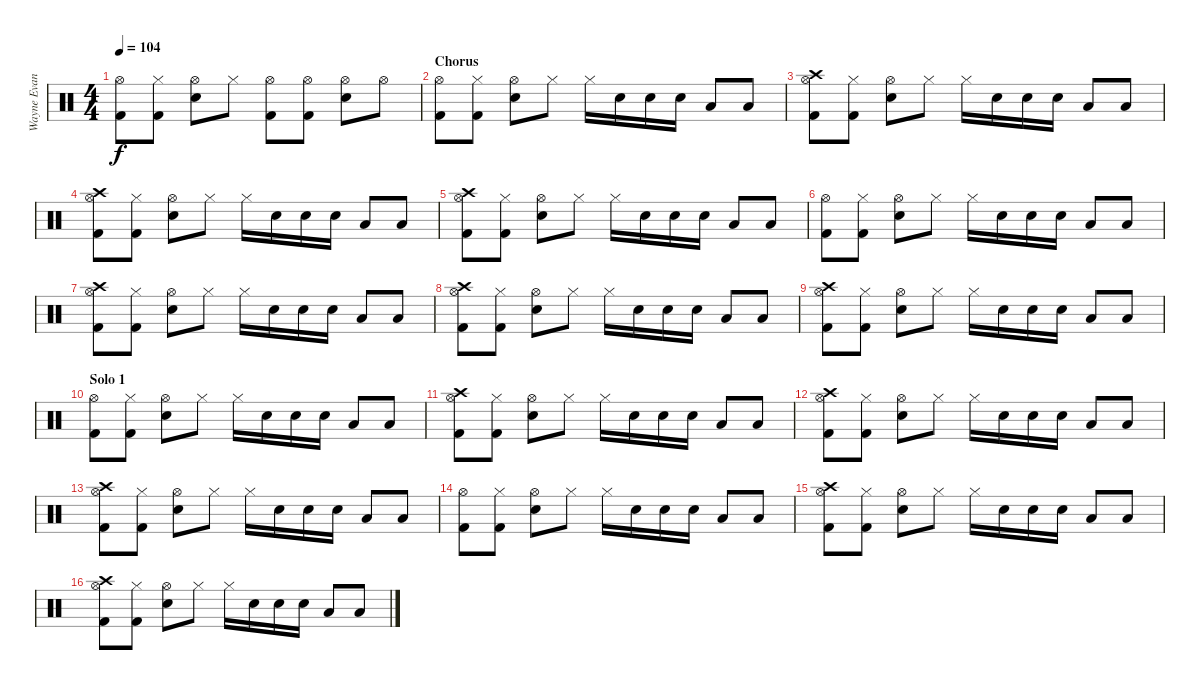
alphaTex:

\track ("Wayne Evans " "Wayne Evan") {instrument percussion}
\staff {score}
\articulation defaults
\ts (4 4)
\tempo 104
\clef neutral
\ks c
("Hi-Hat (open)" "Kick (hit) 2").8{dy f} ("Hi-Hat (closed)" "Kick (hit) 2").8 ("Hi-Hat (open)" "Electric Snare (hit)").8 "Hi-Hat (closed)".8 ("Hi-Hat (open)" "Kick (hit) 2").8 ("Hi-Hat (open)" "Kick (hit) 2").8 ("Hi-Hat (open)" "Electric Snare (hit)").8 "Hi-Hat (open)".8 |
\section ("" "Chorus")
("Hi-Hat (open)" "Kick (hit) 2").8 ("Hi-Hat (closed)" "Kick (hit) 2").8 ("Hi-Hat (open)" "Electric Snare (hit)").8 "Hi-Hat (closed)".8 "Hi-Hat (closed)".16 "Electric Snare (hit)".16 "Electric Snare (hit)".16 "Electric Snare (hit)".16 "Low Tom (hit)".8 "Low Tom (hit)".8 |
("Crash high (hit)" "Hi-Hat (open)" "Kick (hit) 2").8 ("Hi-Hat (closed)" "Kick (hit) 2").8 ("Hi-Hat (open)" "Electric Snare (hit)").8 "Hi-Hat (closed)".8 "Hi-Hat (closed)".16 "Electric Snare (hit)".16 "Electric Snare (hit)".16 "Electric Snare (hit)".16 "Low Tom (hit)".8 "Low Tom (hit)".8 |
("Crash high (hit)" "Hi-Hat (open)" "Kick (hit) 2").8 ("Hi-Hat (closed)" "Kick (hit) 2").8 ("Hi-Hat (open)" "Electric Snare (hit)").8 "Hi-Hat (closed)".8 "Hi-Hat (closed)".16 "Electric Snare (hit)".16 "Electric Snare (hit)".16 "Electric Snare (hit)".16 "Low Tom (hit)".8 "Low Tom (hit)".8 |
("Crash high (hit)" "Hi-Hat (open)" "Kick (hit) 2").8 ("Hi-Hat (closed)" "Kick (hit) 2").8 ("Hi-Hat (open)" "Electric Snare (hit)").8 "Hi-Hat (closed)".8 "Hi-Hat (closed)".16 "Electric Snare (hit)".16 "Electric Snare (hit)".16 "Electric Snare (hit)".16 "Low Tom (hit)".8 "Low Tom (hit)".8 |
("Hi-Hat (open)" "Kick (hit) 2").8 ("Hi-Hat (closed)" "Kick (hit) 2").8 ("Hi-Hat (open)" "Electric Snare (hit)").8 "Hi-Hat (closed)".8 "Hi-Hat (closed)".16 "Electric Snare (hit)".16 "Electric Snare (hit)".16 "Electric Snare (hit)".16 "Low Tom (hit)".8 "Low Tom (hit)".8 |
("Crash high (hit)" "Hi-Hat (open)" "Kick (hit) 2").8 ("Hi-Hat (closed)" "Kick (hit) 2").8 ("Hi-Hat (open)" "Electric Snare (hit)").8 "Hi-Hat (closed)".8 "Hi-Hat (closed)".16 "Electric Snare (hit)".16 "Electric Snare (hit)".16 "Electric Snare (hit)".16 "Low Tom (hit)".8 "Low Tom (hit)".8 |
("Crash high (hit)" "Hi-Hat (open)" "Kick (hit) 2").8 ("Hi-Hat (closed)" "Kick (hit) 2").8 ("Hi-Hat (open)" "Electric Snare (hit)").8 "Hi-Hat (closed)".8 "Hi-Hat (closed)".16 "Electric Snare (hit)".16 "Electric Snare (hit)".16 "Electric Snare (hit)".16 "Low Tom (hit)".8 "Low Tom (hit)".8 |
("Crash high (hit)" "Hi-Hat (open)" "Kick (hit) 2").8 ("Hi-Hat (closed)" "Kick (hit) 2").8 ("Hi-Hat (open)" "Electric Snare (hit)").8 "Hi-Hat (closed)".8 "Hi-Hat (closed)".16 "Electric Snare (hit)".16 "Electric Snare (hit)".16 "Electric Snare (hit)".16 "Low Tom (hit)".8 "Low Tom (hit)".8 |
\section ("" "Solo 1")
("Hi-Hat (open)" "Kick (hit) 2").8 ("Hi-Hat (closed)" "Kick (hit) 2").8 ("Hi-Hat (open)" "Electric Snare (hit)").8 "Hi-Hat (closed)".8 "Hi-Hat (closed)".16 "Electric Snare (hit)".16 "Electric Snare (hit)".16 "Electric Snare (hit)".16 "Low Tom (hit)".8 "Low Tom (hit)".8 |
("Crash high (hit)" "Hi-Hat (open)" "Kick (hit) 2").8 ("Hi-Hat (closed)" "Kick (hit) 2").8 ("Hi-Hat (open)" "Electric Snare (hit)").8 "Hi-Hat (closed)".8 "Hi-Hat (closed)".16 "Electric Snare (hit)".16 "Electric Snare (hit)".16 "Electric Snare (hit)".16 "Low Tom (hit)".8 "Low Tom (hit)".8 |
("Crash high (hit)" "Hi-Hat (open)" "Kick (hit) 2").8 ("Hi-Hat (closed)" "Kick (hit) 2").8 ("Hi-Hat (open)" "Electric Snare (hit)").8 "Hi-Hat (closed)".8 "Hi-Hat (closed)".16 "Electric Snare (hit)".16 "Electric Snare (hit)".16 "Electric Snare (hit)".16 "Low Tom (hit)".8 "Low Tom (hit)".8 |
("Crash high (hit)" "Hi-Hat (open)" "Kick (hit) 2").8 ("Hi-Hat (closed)" "Kick (hit) 2").8 ("Hi-Hat (open)" "Electric Snare (hit)").8 "Hi-Hat (closed)".8 "Hi-Hat (closed)".16 "Electric Snare (hit)".16 "Electric Snare (hit)".16 "Electric Snare (hit)".16 "Low Tom (hit)".8 "Low Tom (hit)".8 |
("Hi-Hat (open)" "Kick (hit) 2").8 ("Hi-Hat (closed)" "Kick (hit) 2").8 ("Hi-Hat (open)" "Electric Snare (hit)").8 "Hi-Hat (closed)".8 "Hi-Hat (closed)".16 "Electric Snare (hit)".16 "Electric Snare (hit)".16 "Electric Snare (hit)".16 "Low Tom (hit)".8 "Low Tom (hit)".8 |
("Crash high (hit)" "Hi-Hat (open)" "Kick (hit) 2").8 ("Hi-Hat (closed)" "Kick (hit) 2").8 ("Hi-Hat (open)" "Electric Snare (hit)").8 "Hi-Hat (closed)".8 "Hi-Hat (closed)".16 "Electric Snare (hit)".16 "Electric Snare (hit)".16 "Electric Snare (hit)".16 "Low Tom (hit)".8 "Low Tom (hit)".8 |
("Crash high (hit)" "Hi-Hat (open)" "Kick (hit) 2").8 ("Hi-Hat (closed)" "Kick (hit) 2").8 ("Hi-Hat (open)" "Electric Snare (hit)").8 "Hi-Hat (closed)".8 "Hi-Hat (closed)".16 "Electric Snare (hit)".16 "Electric Snare (hit)".16 "Electric Snare (hit)".16 "Low Tom (hit)".8 "Low Tom (hit)".8
